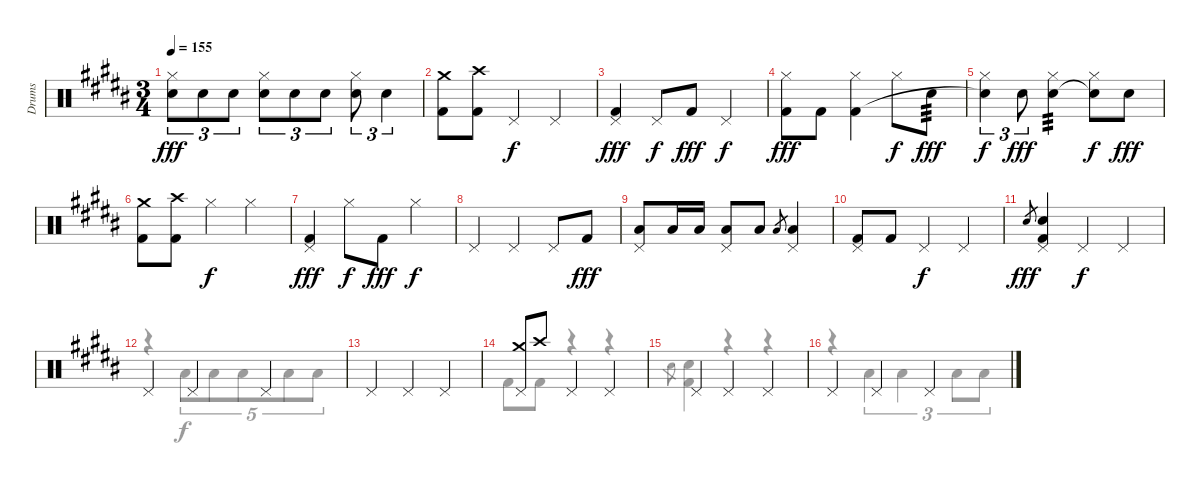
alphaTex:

\track ("Drums" "Drums") {instrument percussion}
\staff {score}
\articulation defaults
\voice
\ts (3 4)
\tempo 155
\clef neutral
\ks b
("Hi-Hat (closed)" "Snare (hit) 2").8{tu (3 2) dy fff} "Snare (hit) 2".8{tu (3 2)} "Snare (hit) 2".8{tu (3 2)} ("Hi-Hat (closed)" "Snare (hit) 2").8{tu (3 2)} "Snare (hit) 2".8{tu (3 2)} "Snare (hit) 2".8{tu (3 2)} ("Hi-Hat (closed)" "Snare (hit) 2").8{tu (3 2)} "Snare (hit) 2".4{tu (3 2)} |
("Crash medium (hit)" "Kick (hit) 2").8 ("Crash high (hit)" "Kick (hit) 2").8 "Pedal Hi-Hat (hit)".4{dy f} "Pedal Hi-Hat (hit)".4 |
("Pedal Hi-Hat (hit)" "Kick (hit) 2").4{dy fff} "Pedal Hi-Hat (hit)".8{dy f} "Kick (hit) 2".8{dy fff} "Pedal Hi-Hat (hit)".4{dy f} |
("Hi-Hat (closed)" "Kick (hit) 2").8{dy fff} "Kick (hit) 2".8 ("Hi-Hat (closed)" "Kick (hit) 2").4 "Hi-Hat (closed)".8{dy f} "Snare (hit) 2".8{tp 3 dy fff} |
("Hi-Hat (closed)" "Snare (hit)"{t}).4{tu (3 2) dy f} "Snare (hit) 2".8{tu (3 2) dy fff} ("Hi-Hat (closed)" "Snare (hit) 2").4{tp 3} ("Hi-Hat (closed)" "Snare (hit)"{t}).8{dy f} "Snare (hit) 2".8{dy fff} |
("Crash medium (hit)" "Kick (hit) 2").8 ("Crash high (hit)" "Kick (hit) 2").8 "Hi-Hat (closed)".4{dy f} "Hi-Hat (closed)".4 |
("Pedal Hi-Hat (hit)" "Kick (hit) 2").4{dy fff} "Hi-Hat (closed)".8{dy f} "Kick (hit) 2".8{dy fff} "Hi-Hat (closed)".4{dy f} |
"Pedal Hi-Hat (hit)".4 "Pedal Hi-Hat (hit)".4 "Pedal Hi-Hat (hit)".8 "Kick (hit) 2".8{dy fff} |
("Pedal Hi-Hat (hit)" "Low Floor Tom (hit)").8 "Low Floor Tom (hit)".16 "Low Floor Tom (hit)".16 ("Pedal Hi-Hat (hit)" "Low Floor Tom (hit)").8 "Low Floor Tom (hit)".8 "Low Floor Tom (hit)".8{gr} ("Pedal Hi-Hat (hit)" "Low Floor Tom (hit)").4 |
("Pedal Hi-Hat (hit)" "Kick (hit) 2").8 "Kick (hit) 2".8 "Pedal Hi-Hat (hit)".4{dy f} "Pedal Hi-Hat (hit)".4 |
"Snare (hit) 2".8{gr dy fff} ("Pedal Hi-Hat (hit)" "Snare (hit) 2" "Kick (hit) 2").4 "Pedal Hi-Hat (hit)".4{dy f} "Pedal Hi-Hat (hit)".4 |
"Pedal Hi-Hat (hit)".4 "Pedal Hi-Hat (hit)".4 "Pedal Hi-Hat (hit)".4 |
"Pedal Hi-Hat (hit)".4 "Pedal Hi-Hat (hit)".4 "Pedal Hi-Hat (hit)".4 |
("Pedal Hi-Hat (hit)" "Crash medium (hit)").8 "Crash high (hit)".8 "Pedal Hi-Hat (hit)".4 "Pedal Hi-Hat (hit)".4 |
"Pedal Hi-Hat (hit)".4 "Pedal Hi-Hat (hit)".4 "Pedal Hi-Hat (hit)".4 |
"Pedal Hi-Hat (hit)".4 "Pedal Hi-Hat (hit)".4 "Pedal Hi-Hat (hit)".4
\voice
\clef neutral
\ottava regular
\simile none
\ks b
|
|
|
|
|
|
|
|
|
|
|
r.4 "Low Floor Tom (hit)".8{tu (5 4)} "Low Floor Tom (hit)".8{tu (5 4)} "Low Floor Tom (hit)".8{tu (5 4)} "Low Floor Tom (hit)".8{tu (5 4)} "Low Floor Tom (hit)".8{tu (5 4)} |
|
"Kick (hit) 2".8 "Kick (hit) 2".8 r.4 r.4 |
"Snare (hit) 2".8{gr} ("Snare (hit) 2" "Kick (hit) 2").4 r.4 r.4 |
r.4 "Low Floor Tom (hit)".4{tu (3 2)} "Low Floor Tom (hit)".4{tu (3 2)} "Low Floor Tom (hit)".8{tu (3 2)} "Low Floor Tom (hit)".8{tu (3 2)}
